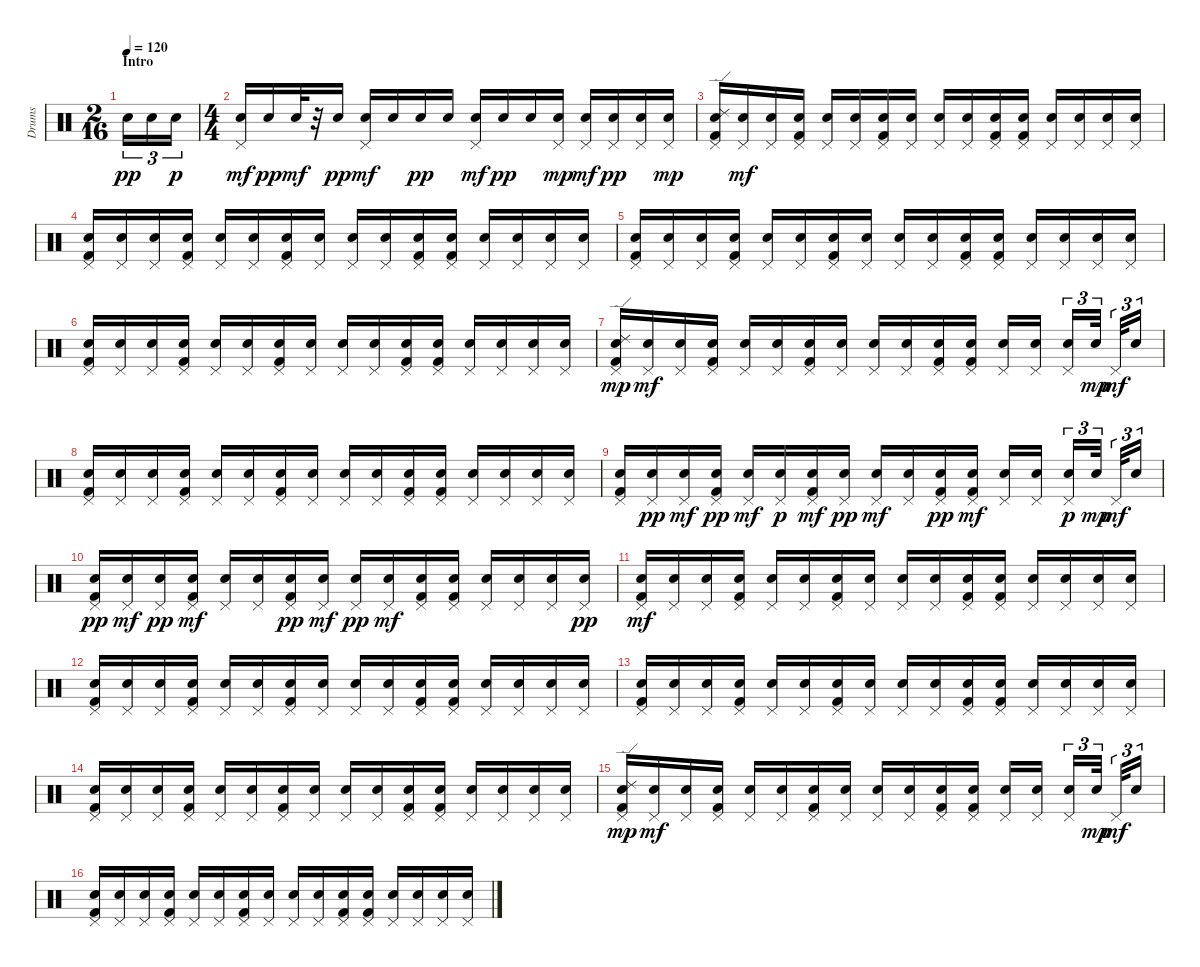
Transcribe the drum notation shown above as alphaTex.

\track ("Drums" "Drums") {instrument percussion}
\staff {score}
\articulation defaults
\ts (2 16)
\section ("" "Intro")
\tempo 120
\clef neutral
\ks c "Electric Snare (hit)".16{tu (3 2) dy pp} "Electric Snare (hit)".16{tu (3 2)} "Electric Snare (hit)".16{tu (3 2) dy p}
|
\ts (4 4)
("Pedal Hi-Hat (hit)" "Electric Snare (hit)").16{dy mf} "Electric Snare (hit)".16{dy pp} "Electric Snare (hit)".32{dy mf} r.32 "Electric Snare (hit)".16{dy pp} ("Electric Snare (hit)" "Pedal Hi-Hat (hit)").16{dy mf} "Electric Snare (hit)".16 "Electric Snare (hit)".16{dy pp} "Electric Snare (hit)".16 ("Pedal Hi-Hat (hit)" "Electric Snare (hit)").16{dy mf} "Electric Snare (hit)".16{dy pp} "Electric Snare (hit)".16 ("Pedal Hi-Hat (hit)" "Electric Snare (hit)").16{dy mp} ("Pedal Hi-Hat (hit)" "Electric Snare (hit)").16{dy mf} ("Pedal Hi-Hat (hit)" "Electric Snare (hit)").16{dy pp} ("Pedal Hi-Hat (hit)" "Electric Snare (hit)").16 ("Pedal Hi-Hat (hit)" "Electric Snare (hit)").16{dy mp} |
("Electric Snare (hit)" "Pedal Hi-Hat (hit)" "Kick (hit) 2" "Ride (edge) 2").16 ("Electric Snare (hit)" "Pedal Hi-Hat (hit)").16{dy mf} ("Electric Snare (hit)" "Pedal Hi-Hat (hit)").16 ("Electric Snare (hit)" "Pedal Hi-Hat (hit)" "Kick (hit) 2").16 ("Pedal Hi-Hat (hit)" "Electric Snare (hit)").16 ("Electric Snare (hit)" "Pedal Hi-Hat (hit)").16 ("Electric Snare (hit)" "Pedal Hi-Hat (hit)" "Kick (hit) 2").16 ("Electric Snare (hit)" "Pedal Hi-Hat (hit)").16 ("Electric Snare (hit)" "Pedal Hi-Hat (hit)").16 ("Electric Snare (hit)" "Pedal Hi-Hat (hit)").16 ("Electric Snare (hit)" "Pedal Hi-Hat (hit)" "Kick (hit) 2").16 ("Electric Snare (hit)" "Pedal Hi-Hat (hit)" "Kick (hit) 2").16 ("Electric Snare (hit)" "Pedal Hi-Hat (hit)").16 ("Electric Snare (hit)" "Pedal Hi-Hat (hit)").16 ("Electric Snare (hit)" "Pedal Hi-Hat (hit)").16 ("Electric Snare (hit)" "Pedal Hi-Hat (hit)").16 |
("Electric Snare (hit)" "Pedal Hi-Hat (hit)" "Kick (hit) 2").16 ("Electric Snare (hit)" "Pedal Hi-Hat (hit)").16 ("Electric Snare (hit)" "Pedal Hi-Hat (hit)").16 ("Electric Snare (hit)" "Pedal Hi-Hat (hit)" "Kick (hit) 2").16 ("Pedal Hi-Hat (hit)" "Electric Snare (hit)").16 ("Electric Snare (hit)" "Pedal Hi-Hat (hit)").16 ("Electric Snare (hit)" "Pedal Hi-Hat (hit)" "Kick (hit) 2").16 ("Electric Snare (hit)" "Pedal Hi-Hat (hit)").16 ("Electric Snare (hit)" "Pedal Hi-Hat (hit)").16 ("Electric Snare (hit)" "Pedal Hi-Hat (hit)").16 ("Electric Snare (hit)" "Pedal Hi-Hat (hit)" "Kick (hit) 2").16 ("Electric Snare (hit)" "Pedal Hi-Hat (hit)" "Kick (hit) 2").16 ("Electric Snare (hit)" "Pedal Hi-Hat (hit)").16 ("Electric Snare (hit)" "Pedal Hi-Hat (hit)").16 ("Electric Snare (hit)" "Pedal Hi-Hat (hit)").16 ("Electric Snare (hit)" "Pedal Hi-Hat (hit)").16 |
("Electric Snare (hit)" "Pedal Hi-Hat (hit)" "Kick (hit) 2").16 ("Electric Snare (hit)" "Pedal Hi-Hat (hit)").16 ("Electric Snare (hit)" "Pedal Hi-Hat (hit)").16 ("Electric Snare (hit)" "Pedal Hi-Hat (hit)" "Kick (hit) 2").16 ("Pedal Hi-Hat (hit)" "Electric Snare (hit)").16 ("Electric Snare (hit)" "Pedal Hi-Hat (hit)").16 ("Electric Snare (hit)" "Pedal Hi-Hat (hit)" "Kick (hit) 2").16 ("Electric Snare (hit)" "Pedal Hi-Hat (hit)").16 ("Electric Snare (hit)" "Pedal Hi-Hat (hit)").16 ("Electric Snare (hit)" "Pedal Hi-Hat (hit)").16 ("Electric Snare (hit)" "Pedal Hi-Hat (hit)" "Kick (hit) 2").16 ("Electric Snare (hit)" "Pedal Hi-Hat (hit)" "Kick (hit) 2").16 ("Electric Snare (hit)" "Pedal Hi-Hat (hit)").16 ("Electric Snare (hit)" "Pedal Hi-Hat (hit)").16 ("Electric Snare (hit)" "Pedal Hi-Hat (hit)").16 ("Electric Snare (hit)" "Pedal Hi-Hat (hit)").16 |
("Electric Snare (hit)" "Pedal Hi-Hat (hit)" "Kick (hit) 2").16 ("Electric Snare (hit)" "Pedal Hi-Hat (hit)").16 ("Electric Snare (hit)" "Pedal Hi-Hat (hit)").16 ("Electric Snare (hit)" "Pedal Hi-Hat (hit)" "Kick (hit) 2").16 ("Pedal Hi-Hat (hit)" "Electric Snare (hit)").16 ("Electric Snare (hit)" "Pedal Hi-Hat (hit)").16 ("Electric Snare (hit)" "Pedal Hi-Hat (hit)" "Kick (hit) 2").16 ("Electric Snare (hit)" "Pedal Hi-Hat (hit)").16 ("Electric Snare (hit)" "Pedal Hi-Hat (hit)").16 ("Electric Snare (hit)" "Pedal Hi-Hat (hit)").16 ("Electric Snare (hit)" "Pedal Hi-Hat (hit)" "Kick (hit) 2").16 ("Electric Snare (hit)" "Pedal Hi-Hat (hit)" "Kick (hit) 2").16 ("Electric Snare (hit)" "Pedal Hi-Hat (hit)").16 ("Electric Snare (hit)" "Pedal Hi-Hat (hit)").16 ("Electric Snare (hit)" "Pedal Hi-Hat (hit)").16 ("Electric Snare (hit)" "Pedal Hi-Hat (hit)").16 |
("Electric Snare (hit)" "Pedal Hi-Hat (hit)" "Kick (hit) 2" "Ride (edge) 2").16{dy mp} ("Electric Snare (hit)" "Pedal Hi-Hat (hit)").16{dy mf} ("Electric Snare (hit)" "Pedal Hi-Hat (hit)").16 ("Electric Snare (hit)" "Pedal Hi-Hat (hit)" "Kick (hit) 2").16 ("Pedal Hi-Hat (hit)" "Electric Snare (hit)").16 ("Electric Snare (hit)" "Pedal Hi-Hat (hit)").16 ("Electric Snare (hit)" "Pedal Hi-Hat (hit)" "Kick (hit) 2").16 ("Electric Snare (hit)" "Pedal Hi-Hat (hit)").16 ("Electric Snare (hit)" "Pedal Hi-Hat (hit)").16 ("Electric Snare (hit)" "Pedal Hi-Hat (hit)").16 ("Electric Snare (hit)" "Pedal Hi-Hat (hit)" "Kick (hit) 2").16 ("Electric Snare (hit)" "Pedal Hi-Hat (hit)" "Kick (hit) 2").16 ("Electric Snare (hit)" "Pedal Hi-Hat (hit)").16 ("Electric Snare (hit)" "Pedal Hi-Hat (hit)").16 ("Electric Snare (hit)" "Pedal Hi-Hat (hit)").16{tu (3 2)} "Electric Snare (hit)".32{tu (3 2) dy mp} "Pedal Hi-Hat (hit)".32{tu (3 2) dy mf} "Electric Snare (hit)".16{tu (3 2)} |
("Electric Snare (hit)" "Pedal Hi-Hat (hit)" "Kick (hit) 2").16 ("Electric Snare (hit)" "Pedal Hi-Hat (hit)").16 ("Electric Snare (hit)" "Pedal Hi-Hat (hit)").16 ("Electric Snare (hit)" "Pedal Hi-Hat (hit)" "Kick (hit) 2").16 ("Pedal Hi-Hat (hit)" "Electric Snare (hit)").16 ("Electric Snare (hit)" "Pedal Hi-Hat (hit)").16 ("Electric Snare (hit)" "Pedal Hi-Hat (hit)" "Kick (hit) 2").16 ("Electric Snare (hit)" "Pedal Hi-Hat (hit)").16 ("Electric Snare (hit)" "Pedal Hi-Hat (hit)").16 ("Electric Snare (hit)" "Pedal Hi-Hat (hit)").16 ("Electric Snare (hit)" "Pedal Hi-Hat (hit)" "Kick (hit) 2").16 ("Electric Snare (hit)" "Pedal Hi-Hat (hit)" "Kick (hit) 2").16 ("Electric Snare (hit)" "Pedal Hi-Hat (hit)").16 ("Electric Snare (hit)" "Pedal Hi-Hat (hit)").16 ("Electric Snare (hit)" "Pedal Hi-Hat (hit)").16 ("Electric Snare (hit)" "Pedal Hi-Hat (hit)").16 |
("Electric Snare (hit)" "Pedal Hi-Hat (hit)" "Kick (hit) 2").16 ("Pedal Hi-Hat (hit)" "Electric Snare (hit)").16{dy pp} ("Electric Snare (hit)" "Pedal Hi-Hat (hit)").16{dy mf} ("Pedal Hi-Hat (hit)" "Kick (hit) 2" "Electric Snare (hit)").16{dy pp} ("Pedal Hi-Hat (hit)" "Electric Snare (hit)").16{dy mf} ("Pedal Hi-Hat (hit)" "Electric Snare (hit)").16{dy p} ("Electric Snare (hit)" "Pedal Hi-Hat (hit)" "Kick (hit) 2").16{dy mf} ("Pedal Hi-Hat (hit)" "Electric Snare (hit)").16{dy pp} ("Electric Snare (hit)" "Pedal Hi-Hat (hit)").16{dy mf} ("Electric Snare (hit)" "Pedal Hi-Hat (hit)").16 ("Pedal Hi-Hat (hit)" "Electric Snare (hit)" "Kick (hit) 2").16{dy pp} ("Electric Snare (hit)" "Kick (hit) 2" "Pedal Hi-Hat (hit)").16{dy mf} ("Electric Snare (hit)" "Pedal Hi-Hat (hit)").16 ("Electric Snare (hit)" "Pedal Hi-Hat (hit)").16 ("Pedal Hi-Hat (hit)" "Electric Snare (hit)").16{tu (3 2) dy p} "Electric Snare (hit)".32{tu (3 2) dy mp} "Pedal Hi-Hat (hit)".32{tu (3 2) dy mf} "Electric Snare (hit)".16{tu (3 2)} |
("Pedal Hi-Hat (hit)" "Electric Snare (hit)" "Kick (hit) 2").16{dy pp} ("Electric Snare (hit)" "Pedal Hi-Hat (hit)").16{dy mf} ("Pedal Hi-Hat (hit)" "Electric Snare (hit)").16{dy pp} ("Electric Snare (hit)" "Pedal Hi-Hat (hit)" "Kick (hit) 2").16{dy mf} ("Electric Snare (hit)" "Pedal Hi-Hat (hit)").16 ("Electric Snare (hit)" "Pedal Hi-Hat (hit)").16 ("Pedal Hi-Hat (hit)" "Kick (hit) 2" "Electric Snare (hit)").16{dy pp} ("Electric Snare (hit)" "Pedal Hi-Hat (hit)").16{dy mf} ("Pedal Hi-Hat (hit)" "Electric Snare (hit)").16{dy pp} ("Electric Snare (hit)" "Pedal Hi-Hat (hit)").16{dy mf} ("Electric Snare (hit)" "Kick (hit) 2" "Pedal Hi-Hat (hit)").16 ("Electric Snare (hit)" "Pedal Hi-Hat (hit)" "Kick (hit) 2").16 ("Pedal Hi-Hat (hit)" "Electric Snare (hit)").16 ("Electric Snare (hit)" "Pedal Hi-Hat (hit)").16 ("Electric Snare (hit)" "Pedal Hi-Hat (hit)").16 ("Pedal Hi-Hat (hit)" "Electric Snare (hit)").16{dy pp} |
("Electric Snare (hit)" "Pedal Hi-Hat (hit)" "Kick (hit) 2").16{dy mf} ("Electric Snare (hit)" "Pedal Hi-Hat (hit)").16 ("Electric Snare (hit)" "Pedal Hi-Hat (hit)").16 ("Electric Snare (hit)" "Pedal Hi-Hat (hit)" "Kick (hit) 2").16 ("Pedal Hi-Hat (hit)" "Electric Snare (hit)").16 ("Electric Snare (hit)" "Pedal Hi-Hat (hit)").16 ("Electric Snare (hit)" "Pedal Hi-Hat (hit)" "Kick (hit) 2").16 ("Electric Snare (hit)" "Pedal Hi-Hat (hit)").16 ("Electric Snare (hit)" "Pedal Hi-Hat (hit)").16 ("Electric Snare (hit)" "Pedal Hi-Hat (hit)").16 ("Electric Snare (hit)" "Pedal Hi-Hat (hit)" "Kick (hit) 2").16 ("Electric Snare (hit)" "Pedal Hi-Hat (hit)" "Kick (hit) 2").16 ("Electric Snare (hit)" "Pedal Hi-Hat (hit)").16 ("Electric Snare (hit)" "Pedal Hi-Hat (hit)").16 ("Electric Snare (hit)" "Pedal Hi-Hat (hit)").16 ("Electric Snare (hit)" "Pedal Hi-Hat (hit)").16 |
("Electric Snare (hit)" "Pedal Hi-Hat (hit)" "Kick (hit) 2").16 ("Electric Snare (hit)" "Pedal Hi-Hat (hit)").16 ("Electric Snare (hit)" "Pedal Hi-Hat (hit)").16 ("Electric Snare (hit)" "Pedal Hi-Hat (hit)" "Kick (hit) 2").16 ("Pedal Hi-Hat (hit)" "Electric Snare (hit)").16 ("Electric Snare (hit)" "Pedal Hi-Hat (hit)").16 ("Electric Snare (hit)" "Pedal Hi-Hat (hit)" "Kick (hit) 2").16 ("Electric Snare (hit)" "Pedal Hi-Hat (hit)").16 ("Electric Snare (hit)" "Pedal Hi-Hat (hit)").16 ("Electric Snare (hit)" "Pedal Hi-Hat (hit)").16 ("Electric Snare (hit)" "Pedal Hi-Hat (hit)" "Kick (hit) 2").16 ("Electric Snare (hit)" "Pedal Hi-Hat (hit)" "Kick (hit) 2").16 ("Electric Snare (hit)" "Pedal Hi-Hat (hit)").16 ("Electric Snare (hit)" "Pedal Hi-Hat (hit)").16 ("Electric Snare (hit)" "Pedal Hi-Hat (hit)").16 ("Electric Snare (hit)" "Pedal Hi-Hat (hit)").16 |
("Electric Snare (hit)" "Pedal Hi-Hat (hit)" "Kick (hit) 2").16 ("Electric Snare (hit)" "Pedal Hi-Hat (hit)").16 ("Electric Snare (hit)" "Pedal Hi-Hat (hit)").16 ("Electric Snare (hit)" "Pedal Hi-Hat (hit)" "Kick (hit) 2").16 ("Pedal Hi-Hat (hit)" "Electric Snare (hit)").16 ("Electric Snare (hit)" "Pedal Hi-Hat (hit)").16 ("Electric Snare (hit)" "Pedal Hi-Hat (hit)" "Kick (hit) 2").16 ("Electric Snare (hit)" "Pedal Hi-Hat (hit)").16 ("Electric Snare (hit)" "Pedal Hi-Hat (hit)").16 ("Electric Snare (hit)" "Pedal Hi-Hat (hit)").16 ("Electric Snare (hit)" "Pedal Hi-Hat (hit)" "Kick (hit) 2").16 ("Electric Snare (hit)" "Pedal Hi-Hat (hit)" "Kick (hit) 2").16 ("Electric Snare (hit)" "Pedal Hi-Hat (hit)").16 ("Electric Snare (hit)" "Pedal Hi-Hat (hit)").16 ("Electric Snare (hit)" "Pedal Hi-Hat (hit)").16 ("Electric Snare (hit)" "Pedal Hi-Hat (hit)").16 |
("Electric Snare (hit)" "Pedal Hi-Hat (hit)" "Kick (hit) 2").16 ("Electric Snare (hit)" "Pedal Hi-Hat (hit)").16 ("Electric Snare (hit)" "Pedal Hi-Hat (hit)").16 ("Electric Snare (hit)" "Pedal Hi-Hat (hit)" "Kick (hit) 2").16 ("Pedal Hi-Hat (hit)" "Electric Snare (hit)").16 ("Electric Snare (hit)" "Pedal Hi-Hat (hit)").16 ("Electric Snare (hit)" "Pedal Hi-Hat (hit)" "Kick (hit) 2").16 ("Electric Snare (hit)" "Pedal Hi-Hat (hit)").16 ("Electric Snare (hit)" "Pedal Hi-Hat (hit)").16 ("Electric Snare (hit)" "Pedal Hi-Hat (hit)").16 ("Electric Snare (hit)" "Pedal Hi-Hat (hit)" "Kick (hit) 2").16 ("Electric Snare (hit)" "Pedal Hi-Hat (hit)" "Kick (hit) 2").16 ("Electric Snare (hit)" "Pedal Hi-Hat (hit)").16 ("Electric Snare (hit)" "Pedal Hi-Hat (hit)").16 ("Electric Snare (hit)" "Pedal Hi-Hat (hit)").16 ("Electric Snare (hit)" "Pedal Hi-Hat (hit)").16 |
("Electric Snare (hit)" "Pedal Hi-Hat (hit)" "Kick (hit) 2" "Ride (edge) 2").16{dy mp} ("Electric Snare (hit)" "Pedal Hi-Hat (hit)").16{dy mf} ("Electric Snare (hit)" "Pedal Hi-Hat (hit)").16 ("Electric Snare (hit)" "Pedal Hi-Hat (hit)" "Kick (hit) 2").16 ("Pedal Hi-Hat (hit)" "Electric Snare (hit)").16 ("Electric Snare (hit)" "Pedal Hi-Hat (hit)").16 ("Electric Snare (hit)" "Pedal Hi-Hat (hit)" "Kick (hit) 2").16 ("Electric Snare (hit)" "Pedal Hi-Hat (hit)").16 ("Electric Snare (hit)" "Pedal Hi-Hat (hit)").16 ("Electric Snare (hit)" "Pedal Hi-Hat (hit)").16 ("Electric Snare (hit)" "Pedal Hi-Hat (hit)" "Kick (hit) 2").16 ("Electric Snare (hit)" "Pedal Hi-Hat (hit)" "Kick (hit) 2").16 ("Electric Snare (hit)" "Pedal Hi-Hat (hit)").16 ("Electric Snare (hit)" "Pedal Hi-Hat (hit)").16 ("Electric Snare (hit)" "Pedal Hi-Hat (hit)").16{tu (3 2)} "Electric Snare (hit)".32{tu (3 2) dy mp} "Pedal Hi-Hat (hit)".32{tu (3 2) dy mf} "Electric Snare (hit)".16{tu (3 2)} |
("Electric Snare (hit)" "Pedal Hi-Hat (hit)" "Kick (hit) 2").16 ("Electric Snare (hit)" "Pedal Hi-Hat (hit)").16 ("Electric Snare (hit)" "Pedal Hi-Hat (hit)").16 ("Electric Snare (hit)" "Pedal Hi-Hat (hit)" "Kick (hit) 2").16 ("Pedal Hi-Hat (hit)" "Electric Snare (hit)").16 ("Electric Snare (hit)" "Pedal Hi-Hat (hit)").16 ("Electric Snare (hit)" "Pedal Hi-Hat (hit)" "Kick (hit) 2").16 ("Electric Snare (hit)" "Pedal Hi-Hat (hit)").16 ("Electric Snare (hit)" "Pedal Hi-Hat (hit)").16 ("Electric Snare (hit)" "Pedal Hi-Hat (hit)").16 ("Electric Snare (hit)" "Pedal Hi-Hat (hit)" "Kick (hit) 2").16 ("Electric Snare (hit)" "Pedal Hi-Hat (hit)" "Kick (hit) 2").16 ("Electric Snare (hit)" "Pedal Hi-Hat (hit)").16 ("Electric Snare (hit)" "Pedal Hi-Hat (hit)").16 ("Electric Snare (hit)" "Pedal Hi-Hat (hit)").16 ("Electric Snare (hit)" "Pedal Hi-Hat (hit)").16
